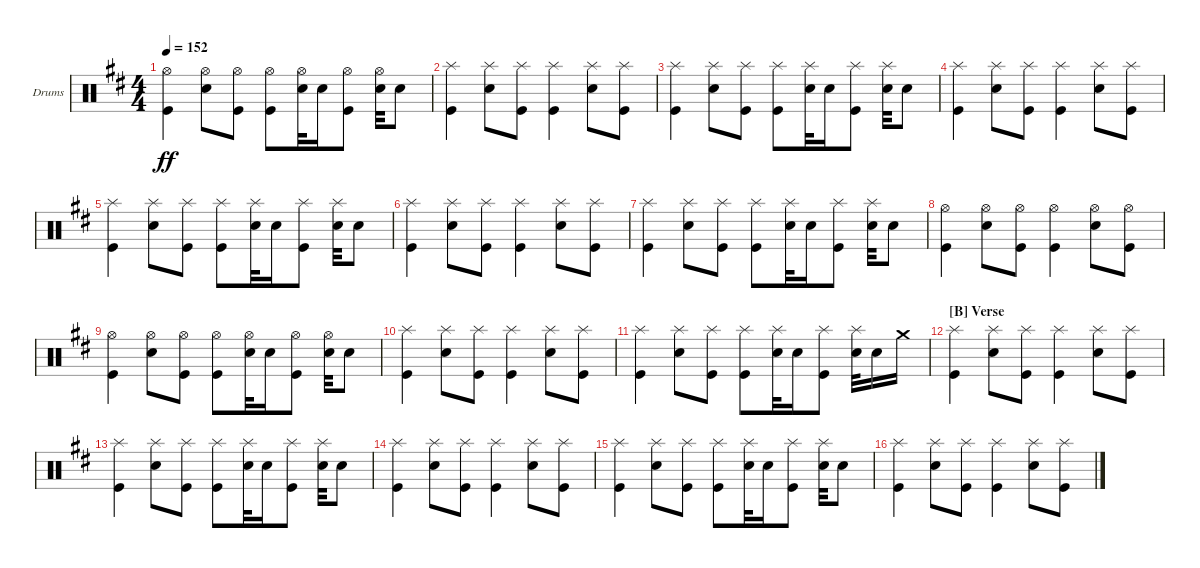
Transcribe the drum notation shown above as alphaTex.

\defaultSystemsLayout 4
\bracketExtendMode groupsimilarinstruments
\firstSystemTrackNameOrientation horizontal
\otherSystemsTrackNameOrientation horizontal
\track ("Drumkit" "Drums") {instrument percussion}
\staff {score}
\articulation defaults
\ts (4 4)
\tempo 152
\clef neutral
\ks d
("Kick (hit)" "Hi-Hat (open)").4{dy ff} ("Snare (hit) 2" "Hi-Hat (open)").8 ("Kick (hit)" "Hi-Hat (open)").8 ("Kick (hit)" "Hi-Hat (open)").8 ("Snare (hit) 2" "Hi-Hat (open)").32 "Snare (hit) 2".16 ("Kick (hit)" "Hi-Hat (open)").8 ("Snare (hit) 2" "Hi-Hat (open)").32 "Snare (hit) 2".8 |
("Kick (hit)" "Splash (hit)").4 ("Snare (hit) 2" "Splash (hit)").8 ("Kick (hit)" "Splash (hit)").8 ("Kick (hit)" "Splash (hit)").4 ("Snare (hit) 2" "Splash (hit)").8 ("Kick (hit)" "Splash (hit)").8 |
("Kick (hit)" "Splash (hit)").4 ("Snare (hit) 2" "Splash (hit)").8 ("Kick (hit)" "Splash (hit)").8 ("Kick (hit)" "Splash (hit)").8 ("Snare (hit) 2" "Splash (hit)").32 "Snare (hit) 2".16 ("Kick (hit)" "Splash (hit)").8 ("Snare (hit) 2" "Splash (hit)").32 "Snare (hit) 2".8 |
("Kick (hit)" "Splash (hit)").4 ("Snare (hit) 2" "Splash (hit)").8 ("Kick (hit)" "Splash (hit)").8 ("Kick (hit)" "Splash (hit)").4 ("Snare (hit) 2" "Splash (hit)").8 ("Kick (hit)" "Splash (hit)").8 |
("Kick (hit)" "Splash (hit)").4 ("Snare (hit) 2" "Splash (hit)").8 ("Kick (hit)" "Splash (hit)").8 ("Kick (hit)" "Splash (hit)").8 ("Snare (hit) 2" "Splash (hit)").32 "Snare (hit) 2".16 ("Kick (hit)" "Splash (hit)").8 ("Snare (hit) 2" "Splash (hit)").32 "Snare (hit) 2".8 |
("Kick (hit)" "Splash (hit)").4 ("Snare (hit) 2" "Splash (hit)").8 ("Kick (hit)" "Splash (hit)").8 ("Kick (hit)" "Splash (hit)").4 ("Snare (hit) 2" "Splash (hit)").8 ("Kick (hit)" "Splash (hit)").8 |
("Kick (hit)" "Splash (hit)").4 ("Snare (hit) 2" "Splash (hit)").8 ("Kick (hit)" "Splash (hit)").8 ("Kick (hit)" "Splash (hit)").8 ("Snare (hit) 2" "Splash (hit)").32 "Snare (hit) 2".16 ("Kick (hit)" "Splash (hit)").8 ("Snare (hit) 2" "Splash (hit)").32 "Snare (hit) 2".8 |
("Kick (hit)" "Hi-Hat (open)").4 ("Snare (hit) 2" "Hi-Hat (open)").8 ("Kick (hit)" "Hi-Hat (open)").8 ("Kick (hit)" "Hi-Hat (open)").4 ("Snare (hit) 2" "Hi-Hat (open)").8 ("Kick (hit)" "Hi-Hat (open)").8 |
("Kick (hit)" "Hi-Hat (open)").4 ("Snare (hit) 2" "Hi-Hat (open)").8 ("Kick (hit)" "Hi-Hat (open)").8 ("Kick (hit)" "Hi-Hat (open)").8 ("Snare (hit) 2" "Hi-Hat (open)").32 "Snare (hit) 2".16 ("Kick (hit)" "Hi-Hat (open)").8 ("Snare (hit) 2" "Hi-Hat (open)").32 "Snare (hit) 2".8 |
("Kick (hit)" "Splash (hit)").4 ("Snare (hit) 2" "Splash (hit)").8 ("Kick (hit)" "Splash (hit)").8 ("Kick (hit)" "Splash (hit)").4 ("Snare (hit) 2" "Splash (hit)").8 ("Kick (hit)" "Splash (hit)").8 |
("Kick (hit)" "Splash (hit)").4 ("Snare (hit) 2" "Splash (hit)").8 ("Kick (hit)" "Splash (hit)").8 ("Kick (hit)" "Splash (hit)").8 ("Snare (hit) 2" "Splash (hit)").32 "Snare (hit) 2".16 ("Kick (hit)" "Splash (hit)").8 ("Snare (hit) 2" "Splash (hit)").32 "Snare (hit) 2".16 "Crash medium (hit)".16 |
\section ("B" "Verse")
("Kick (hit)" "Splash (hit)").4 ("Snare (hit) 2" "Splash (hit)").8 ("Kick (hit)" "Splash (hit)").8 ("Kick (hit)" "Splash (hit)").4 ("Snare (hit) 2" "Splash (hit)").8 ("Kick (hit)" "Splash (hit)").8 |
("Kick (hit)" "Splash (hit)").4 ("Snare (hit) 2" "Splash (hit)").8 ("Kick (hit)" "Splash (hit)").8 ("Kick (hit)" "Splash (hit)").8 ("Snare (hit) 2" "Splash (hit)").32 "Snare (hit) 2".16 ("Kick (hit)" "Splash (hit)").8 ("Snare (hit) 2" "Splash (hit)").32 "Snare (hit) 2".8 |
("Kick (hit)" "Splash (hit)").4 ("Snare (hit) 2" "Splash (hit)").8 ("Kick (hit)" "Splash (hit)").8 ("Kick (hit)" "Splash (hit)").4 ("Snare (hit) 2" "Splash (hit)").8 ("Kick (hit)" "Splash (hit)").8 |
("Kick (hit)" "Splash (hit)").4 ("Snare (hit) 2" "Splash (hit)").8 ("Kick (hit)" "Splash (hit)").8 ("Kick (hit)" "Splash (hit)").8 ("Snare (hit) 2" "Splash (hit)").32 "Snare (hit) 2".16 ("Kick (hit)" "Splash (hit)").8 ("Snare (hit) 2" "Splash (hit)").32 "Snare (hit) 2".8 |
("Kick (hit)" "Splash (hit)").4 ("Snare (hit) 2" "Splash (hit)").8 ("Kick (hit)" "Splash (hit)").8 ("Kick (hit)" "Splash (hit)").4 ("Snare (hit) 2" "Splash (hit)").8 ("Kick (hit)" "Splash (hit)").8
